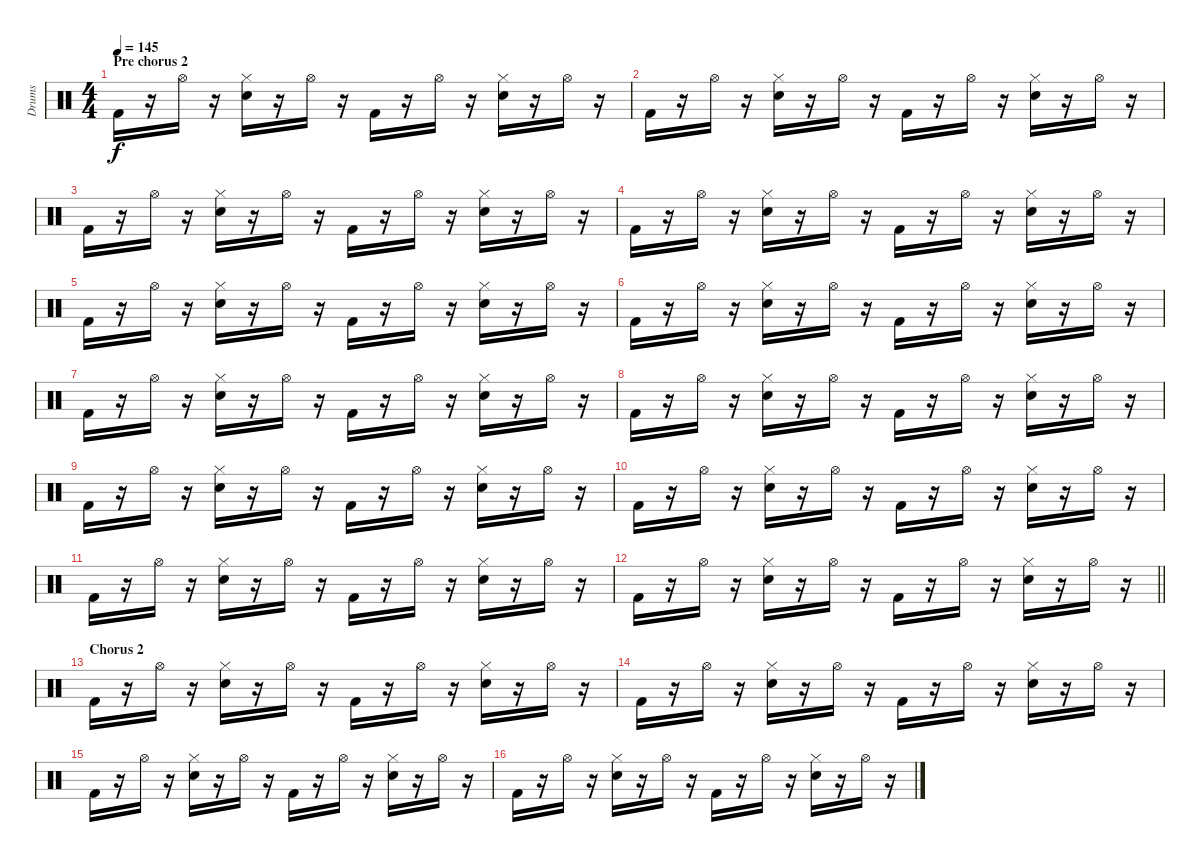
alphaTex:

\track ("Drums" "Drums") {instrument percussion}
\staff {score}
\articulation defaults
\ts (4 4)
\section ("" "Pre chorus 2")
\tempo 145
\clef neutral
\ks c "Kick (hit) 2".16{dy f}
r.16 "Hi-Hat (open)".16 r.16 ("Snare (hit) 2" "Hi-Hat (closed)").16 r.16 "Hi-Hat (open)".16 r.16 "Kick (hit) 2".16 r.16 "Hi-Hat (open)".16 r.16 ("Snare (hit) 2" "Hi-Hat (closed)").16 r.16 "Hi-Hat (open)".16 r.16 |
"Kick (hit) 2".16 r.16 "Hi-Hat (open)".16 r.16 ("Snare (hit) 2" "Hi-Hat (closed)").16 r.16 "Hi-Hat (open)".16 r.16 "Kick (hit) 2".16 r.16 "Hi-Hat (open)".16 r.16 ("Snare (hit) 2" "Hi-Hat (closed)").16 r.16 "Hi-Hat (open)".16 r.16 |
"Kick (hit) 2".16 r.16 "Hi-Hat (open)".16 r.16 ("Snare (hit) 2" "Hi-Hat (closed)").16 r.16 "Hi-Hat (open)".16 r.16 "Kick (hit) 2".16 r.16 "Hi-Hat (open)".16 r.16 ("Snare (hit) 2" "Hi-Hat (closed)").16 r.16 "Hi-Hat (open)".16 r.16 |
"Kick (hit) 2".16 r.16 "Hi-Hat (open)".16 r.16 ("Snare (hit) 2" "Hi-Hat (closed)").16 r.16 "Hi-Hat (open)".16 r.16 "Kick (hit) 2".16 r.16 "Hi-Hat (open)".16 r.16 ("Snare (hit) 2" "Hi-Hat (closed)").16 r.16 "Hi-Hat (open)".16 r.16 |
"Kick (hit) 2".16 r.16 "Hi-Hat (open)".16 r.16 ("Snare (hit) 2" "Hi-Hat (closed)").16 r.16 "Hi-Hat (open)".16 r.16 "Kick (hit) 2".16 r.16 "Hi-Hat (open)".16 r.16 ("Snare (hit) 2" "Hi-Hat (closed)").16 r.16 "Hi-Hat (open)".16 r.16 |
"Kick (hit) 2".16 r.16 "Hi-Hat (open)".16 r.16 ("Snare (hit) 2" "Hi-Hat (closed)").16 r.16 "Hi-Hat (open)".16 r.16 "Kick (hit) 2".16 r.16 "Hi-Hat (open)".16 r.16 ("Snare (hit) 2" "Hi-Hat (closed)").16 r.16 "Hi-Hat (open)".16 r.16 |
"Kick (hit) 2".16 r.16 "Hi-Hat (open)".16 r.16 ("Snare (hit) 2" "Hi-Hat (closed)").16 r.16 "Hi-Hat (open)".16 r.16 "Kick (hit) 2".16 r.16 "Hi-Hat (open)".16 r.16 ("Snare (hit) 2" "Hi-Hat (closed)").16 r.16 "Hi-Hat (open)".16 r.16 |
"Kick (hit) 2".16 r.16 "Hi-Hat (open)".16 r.16 ("Snare (hit) 2" "Hi-Hat (closed)").16 r.16 "Hi-Hat (open)".16 r.16 "Kick (hit) 2".16 r.16 "Hi-Hat (open)".16 r.16 ("Snare (hit) 2" "Hi-Hat (closed)").16 r.16 "Hi-Hat (open)".16 r.16 |
"Kick (hit) 2".16 r.16 "Hi-Hat (open)".16 r.16 ("Snare (hit) 2" "Hi-Hat (closed)").16 r.16 "Hi-Hat (open)".16 r.16 "Kick (hit) 2".16 r.16 "Hi-Hat (open)".16 r.16 ("Snare (hit) 2" "Hi-Hat (closed)").16 r.16 "Hi-Hat (open)".16 r.16 |
"Kick (hit) 2".16 r.16 "Hi-Hat (open)".16 r.16 ("Snare (hit) 2" "Hi-Hat (closed)").16 r.16 "Hi-Hat (open)".16 r.16 "Kick (hit) 2".16 r.16 "Hi-Hat (open)".16 r.16 ("Snare (hit) 2" "Hi-Hat (closed)").16 r.16 "Hi-Hat (open)".16 r.16 |
"Kick (hit) 2".16 r.16 "Hi-Hat (open)".16 r.16 ("Snare (hit) 2" "Hi-Hat (closed)").16 r.16 "Hi-Hat (open)".16 r.16 "Kick (hit) 2".16 r.16 "Hi-Hat (open)".16 r.16 ("Snare (hit) 2" "Hi-Hat (closed)").16 r.16 "Hi-Hat (open)".16 r.16 |
\barLineRight lightlight "Kick (hit) 2".16
r.16 "Hi-Hat (open)".16 r.16 ("Snare (hit) 2" "Hi-Hat (closed)").16 r.16 "Hi-Hat (open)".16 r.16 "Kick (hit) 2".16 r.16 "Hi-Hat (open)".16 r.16 ("Snare (hit) 2" "Hi-Hat (closed)").16 r.16 "Hi-Hat (open)".16 r.16 |
\section ("" "Chorus 2")
"Kick (hit) 2".16 r.16 "Hi-Hat (open)".16 r.16 ("Snare (hit) 2" "Hi-Hat (closed)").16 r.16 "Hi-Hat (open)".16 r.16 "Kick (hit) 2".16 r.16 "Hi-Hat (open)".16 r.16 ("Snare (hit) 2" "Hi-Hat (closed)").16 r.16 "Hi-Hat (open)".16 r.16 |
"Kick (hit) 2".16 r.16 "Hi-Hat (open)".16 r.16 ("Snare (hit) 2" "Hi-Hat (closed)").16 r.16 "Hi-Hat (open)".16 r.16 "Kick (hit) 2".16 r.16 "Hi-Hat (open)".16 r.16 ("Snare (hit) 2" "Hi-Hat (closed)").16 r.16 "Hi-Hat (open)".16 r.16 |
"Kick (hit) 2".16 r.16 "Hi-Hat (open)".16 r.16 ("Snare (hit) 2" "Hi-Hat (closed)").16 r.16 "Hi-Hat (open)".16 r.16 "Kick (hit) 2".16 r.16 "Hi-Hat (open)".16 r.16 ("Snare (hit) 2" "Hi-Hat (closed)").16 r.16 "Hi-Hat (open)".16 r.16 |
"Kick (hit) 2".16 r.16 "Hi-Hat (open)".16 r.16 ("Snare (hit) 2" "Hi-Hat (closed)").16 r.16 "Hi-Hat (open)".16 r.16 "Kick (hit) 2".16 r.16 "Hi-Hat (open)".16 r.16 ("Snare (hit) 2" "Hi-Hat (closed)").16 r.16 "Hi-Hat (open)".16 r.16
